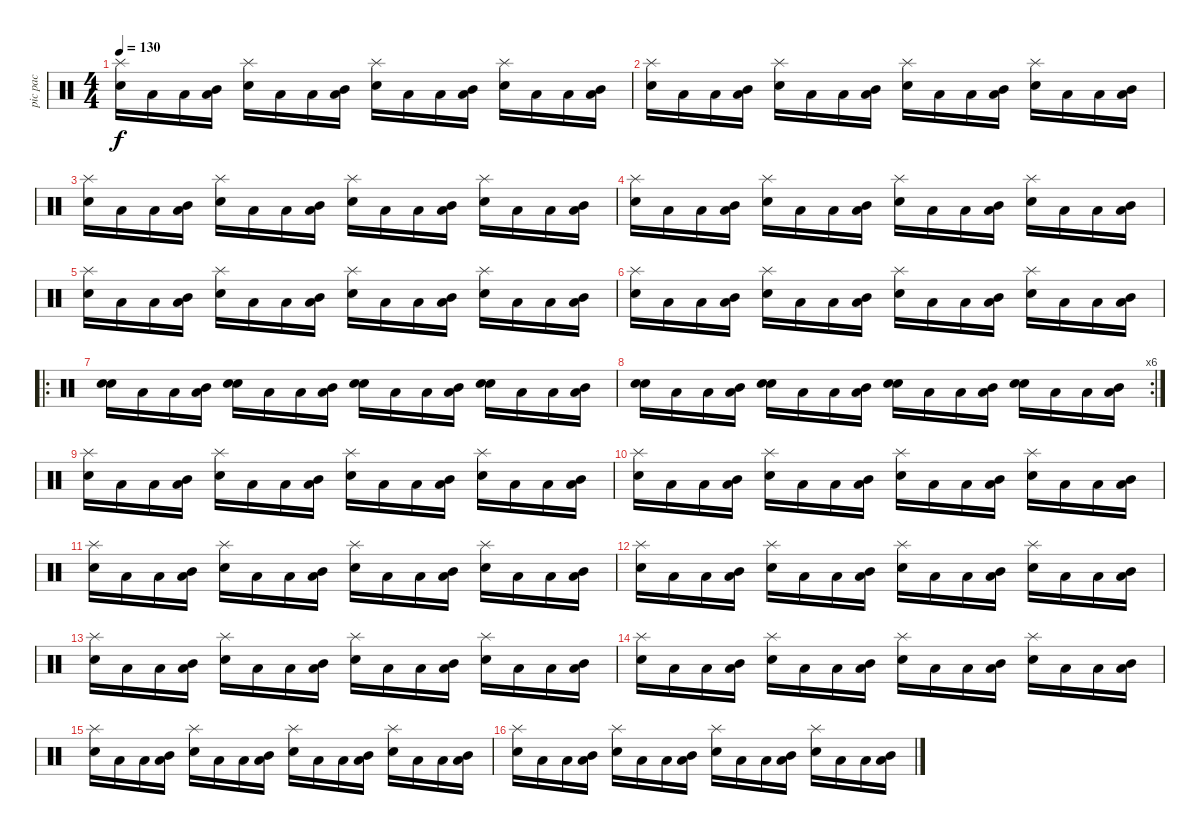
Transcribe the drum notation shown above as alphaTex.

\track ("pic pac" "pic pac") {instrument percussion}
\staff {score}
\articulation defaults
\ts (4 4)
\tempo 130
\clef neutral
\ks c
("Snare (hit) 2" "Splash (hit)").16{dy f} "Low Floor Tom (hit)".16 "Low Floor Tom (hit)".16 ("Low Floor Tom (hit)" "Mid Tom (hit)").16 ("Snare (hit) 2" "Splash (hit)").16 "Low Floor Tom (hit)".16 "Low Floor Tom (hit)".16 ("Low Floor Tom (hit)" "Mid Tom (hit)").16 ("Snare (hit) 2" "Splash (hit)").16 "Low Floor Tom (hit)".16 "Low Floor Tom (hit)".16 ("Low Floor Tom (hit)" "Mid Tom (hit)").16 ("Snare (hit) 2" "Splash (hit)").16 "Low Floor Tom (hit)".16 "Low Floor Tom (hit)".16 ("Low Floor Tom (hit)" "Mid Tom (hit)").16 |
("Snare (hit) 2" "Splash (hit)").16 "Low Floor Tom (hit)".16 "Low Floor Tom (hit)".16 ("Low Floor Tom (hit)" "Mid Tom (hit)").16 ("Snare (hit) 2" "Splash (hit)").16 "Low Floor Tom (hit)".16 "Low Floor Tom (hit)".16 ("Low Floor Tom (hit)" "Mid Tom (hit)").16 ("Snare (hit) 2" "Splash (hit)").16 "Low Floor Tom (hit)".16 "Low Floor Tom (hit)".16 ("Low Floor Tom (hit)" "Mid Tom (hit)").16 ("Snare (hit) 2" "Splash (hit)").16 "Low Floor Tom (hit)".16 "Low Floor Tom (hit)".16 ("Low Floor Tom (hit)" "Mid Tom (hit)").16 |
("Snare (hit) 2" "Splash (hit)").16 "Low Floor Tom (hit)".16 "Low Floor Tom (hit)".16 ("Low Floor Tom (hit)" "Mid Tom (hit)").16 ("Snare (hit) 2" "Splash (hit)").16 "Low Floor Tom (hit)".16 "Low Floor Tom (hit)".16 ("Low Floor Tom (hit)" "Mid Tom (hit)").16 ("Snare (hit) 2" "Splash (hit)").16 "Low Floor Tom (hit)".16 "Low Floor Tom (hit)".16 ("Low Floor Tom (hit)" "Mid Tom (hit)").16 ("Snare (hit) 2" "Splash (hit)").16 "Low Floor Tom (hit)".16 "Low Floor Tom (hit)".16 ("Low Floor Tom (hit)" "Mid Tom (hit)").16 |
("Snare (hit) 2" "Splash (hit)").16 "Low Floor Tom (hit)".16 "Low Floor Tom (hit)".16 ("Low Floor Tom (hit)" "Mid Tom (hit)").16 ("Snare (hit) 2" "Splash (hit)").16 "Low Floor Tom (hit)".16 "Low Floor Tom (hit)".16 ("Low Floor Tom (hit)" "Mid Tom (hit)").16 ("Snare (hit) 2" "Splash (hit)").16 "Low Floor Tom (hit)".16 "Low Floor Tom (hit)".16 ("Low Floor Tom (hit)" "Mid Tom (hit)").16 ("Snare (hit) 2" "Splash (hit)").16 "Low Floor Tom (hit)".16 "Low Floor Tom (hit)".16 ("Low Floor Tom (hit)" "Mid Tom (hit)").16 |
("Snare (hit) 2" "Splash (hit)").16 "Low Floor Tom (hit)".16 "Low Floor Tom (hit)".16 ("Low Floor Tom (hit)" "Mid Tom (hit)").16 ("Snare (hit) 2" "Splash (hit)").16 "Low Floor Tom (hit)".16 "Low Floor Tom (hit)".16 ("Low Floor Tom (hit)" "Mid Tom (hit)").16 ("Snare (hit) 2" "Splash (hit)").16 "Low Floor Tom (hit)".16 "Low Floor Tom (hit)".16 ("Low Floor Tom (hit)" "Mid Tom (hit)").16 ("Snare (hit) 2" "Splash (hit)").16 "Low Floor Tom (hit)".16 "Low Floor Tom (hit)".16 ("Low Floor Tom (hit)" "Mid Tom (hit)").16 |
("Snare (hit) 2" "Splash (hit)").16 "Low Floor Tom (hit)".16 "Low Floor Tom (hit)".16 ("Low Floor Tom (hit)" "Mid Tom (hit)").16 ("Snare (hit) 2" "Splash (hit)").16 "Low Floor Tom (hit)".16 "Low Floor Tom (hit)".16 ("Low Floor Tom (hit)" "Mid Tom (hit)").16 ("Snare (hit) 2" "Splash (hit)").16 "Low Floor Tom (hit)".16 "Low Floor Tom (hit)".16 ("Low Floor Tom (hit)" "Mid Tom (hit)").16 ("Snare (hit) 2" "Splash (hit)").16 "Low Floor Tom (hit)".16 "Low Floor Tom (hit)".16 ("Low Floor Tom (hit)" "Mid Tom (hit)").16 |
\ro
("Snare (hit) 2" "Electric Snare (hit)").16 "Low Floor Tom (hit)".16 "Low Floor Tom (hit)".16 ("Low Floor Tom (hit)" "Mid Tom (hit)").16 ("Snare (hit) 2" "Electric Snare (hit)").16 "Low Floor Tom (hit)".16 "Low Floor Tom (hit)".16 ("Low Floor Tom (hit)" "Mid Tom (hit)").16 ("Snare (hit) 2" "Electric Snare (hit)").16 "Low Floor Tom (hit)".16 "Low Floor Tom (hit)".16 ("Low Floor Tom (hit)" "Mid Tom (hit)").16 ("Snare (hit) 2" "Electric Snare (hit)").16 "Low Floor Tom (hit)".16 "Low Floor Tom (hit)".16 ("Low Floor Tom (hit)" "Mid Tom (hit)").16 |
\rc 6
("Snare (hit) 2" "Electric Snare (hit)").16 "Low Floor Tom (hit)".16 "Low Floor Tom (hit)".16 ("Low Floor Tom (hit)" "Mid Tom (hit)").16 ("Snare (hit) 2" "Electric Snare (hit)").16 "Low Floor Tom (hit)".16 "Low Floor Tom (hit)".16 ("Low Floor Tom (hit)" "Mid Tom (hit)").16 ("Snare (hit) 2" "Electric Snare (hit)").16 "Low Floor Tom (hit)".16 "Low Floor Tom (hit)".16 ("Low Floor Tom (hit)" "Mid Tom (hit)").16 ("Snare (hit) 2" "Electric Snare (hit)").16 "Low Floor Tom (hit)".16 "Low Floor Tom (hit)".16 ("Low Floor Tom (hit)" "Mid Tom (hit)").16 |
("Snare (hit) 2" "Splash (hit)").16 "Low Floor Tom (hit)".16 "Low Floor Tom (hit)".16 ("Low Floor Tom (hit)" "Mid Tom (hit)").16 ("Snare (hit) 2" "Splash (hit)").16 "Low Floor Tom (hit)".16 "Low Floor Tom (hit)".16 ("Low Floor Tom (hit)" "Mid Tom (hit)").16 ("Snare (hit) 2" "Splash (hit)").16 "Low Floor Tom (hit)".16 "Low Floor Tom (hit)".16 ("Low Floor Tom (hit)" "Mid Tom (hit)").16 ("Snare (hit) 2" "Splash (hit)").16 "Low Floor Tom (hit)".16 "Low Floor Tom (hit)".16 ("Low Floor Tom (hit)" "Mid Tom (hit)").16 |
("Snare (hit) 2" "Splash (hit)").16 "Low Floor Tom (hit)".16 "Low Floor Tom (hit)".16 ("Low Floor Tom (hit)" "Mid Tom (hit)").16 ("Snare (hit) 2" "Splash (hit)").16 "Low Floor Tom (hit)".16 "Low Floor Tom (hit)".16 ("Low Floor Tom (hit)" "Mid Tom (hit)").16 ("Snare (hit) 2" "Splash (hit)").16 "Low Floor Tom (hit)".16 "Low Floor Tom (hit)".16 ("Low Floor Tom (hit)" "Mid Tom (hit)").16 ("Snare (hit) 2" "Splash (hit)").16 "Low Floor Tom (hit)".16 "Low Floor Tom (hit)".16 ("Low Floor Tom (hit)" "Mid Tom (hit)").16 |
("Snare (hit) 2" "Splash (hit)").16 "Low Floor Tom (hit)".16 "Low Floor Tom (hit)".16 ("Low Floor Tom (hit)" "Mid Tom (hit)").16 ("Snare (hit) 2" "Splash (hit)").16 "Low Floor Tom (hit)".16 "Low Floor Tom (hit)".16 ("Low Floor Tom (hit)" "Mid Tom (hit)").16 ("Snare (hit) 2" "Splash (hit)").16 "Low Floor Tom (hit)".16 "Low Floor Tom (hit)".16 ("Low Floor Tom (hit)" "Mid Tom (hit)").16 ("Snare (hit) 2" "Splash (hit)").16 "Low Floor Tom (hit)".16 "Low Floor Tom (hit)".16 ("Low Floor Tom (hit)" "Mid Tom (hit)").16 |
("Snare (hit) 2" "Splash (hit)").16 "Low Floor Tom (hit)".16 "Low Floor Tom (hit)".16 ("Low Floor Tom (hit)" "Mid Tom (hit)").16 ("Snare (hit) 2" "Splash (hit)").16 "Low Floor Tom (hit)".16 "Low Floor Tom (hit)".16 ("Low Floor Tom (hit)" "Mid Tom (hit)").16 ("Snare (hit) 2" "Splash (hit)").16 "Low Floor Tom (hit)".16 "Low Floor Tom (hit)".16 ("Low Floor Tom (hit)" "Mid Tom (hit)").16 ("Snare (hit) 2" "Splash (hit)").16 "Low Floor Tom (hit)".16 "Low Floor Tom (hit)".16 ("Low Floor Tom (hit)" "Mid Tom (hit)").16 |
("Snare (hit) 2" "Splash (hit)").16 "Low Floor Tom (hit)".16 "Low Floor Tom (hit)".16 ("Low Floor Tom (hit)" "Mid Tom (hit)").16 ("Snare (hit) 2" "Splash (hit)").16 "Low Floor Tom (hit)".16 "Low Floor Tom (hit)".16 ("Low Floor Tom (hit)" "Mid Tom (hit)").16 ("Snare (hit) 2" "Splash (hit)").16 "Low Floor Tom (hit)".16 "Low Floor Tom (hit)".16 ("Low Floor Tom (hit)" "Mid Tom (hit)").16 ("Snare (hit) 2" "Splash (hit)").16 "Low Floor Tom (hit)".16 "Low Floor Tom (hit)".16 ("Low Floor Tom (hit)" "Mid Tom (hit)").16 |
("Snare (hit) 2" "Splash (hit)").16 "Low Floor Tom (hit)".16 "Low Floor Tom (hit)".16 ("Low Floor Tom (hit)" "Mid Tom (hit)").16 ("Snare (hit) 2" "Splash (hit)").16 "Low Floor Tom (hit)".16 "Low Floor Tom (hit)".16 ("Low Floor Tom (hit)" "Mid Tom (hit)").16 ("Snare (hit) 2" "Splash (hit)").16 "Low Floor Tom (hit)".16 "Low Floor Tom (hit)".16 ("Low Floor Tom (hit)" "Mid Tom (hit)").16 ("Snare (hit) 2" "Splash (hit)").16 "Low Floor Tom (hit)".16 "Low Floor Tom (hit)".16 ("Low Floor Tom (hit)" "Mid Tom (hit)").16 |
("Snare (hit) 2" "Splash (hit)").16 "Low Floor Tom (hit)".16 "Low Floor Tom (hit)".16 ("Low Floor Tom (hit)" "Mid Tom (hit)").16 ("Snare (hit) 2" "Splash (hit)").16 "Low Floor Tom (hit)".16 "Low Floor Tom (hit)".16 ("Low Floor Tom (hit)" "Mid Tom (hit)").16 ("Snare (hit) 2" "Splash (hit)").16 "Low Floor Tom (hit)".16 "Low Floor Tom (hit)".16 ("Low Floor Tom (hit)" "Mid Tom (hit)").16 ("Snare (hit) 2" "Splash (hit)").16 "Low Floor Tom (hit)".16 "Low Floor Tom (hit)".16 ("Low Floor Tom (hit)" "Mid Tom (hit)").16 |
("Snare (hit) 2" "Splash (hit)").16 "Low Floor Tom (hit)".16 "Low Floor Tom (hit)".16 ("Low Floor Tom (hit)" "Mid Tom (hit)").16 ("Snare (hit) 2" "Splash (hit)").16 "Low Floor Tom (hit)".16 "Low Floor Tom (hit)".16 ("Low Floor Tom (hit)" "Mid Tom (hit)").16 ("Snare (hit) 2" "Splash (hit)").16 "Low Floor Tom (hit)".16 "Low Floor Tom (hit)".16 ("Low Floor Tom (hit)" "Mid Tom (hit)").16 ("Snare (hit) 2" "Splash (hit)").16 "Low Floor Tom (hit)".16 "Low Floor Tom (hit)".16 ("Low Floor Tom (hit)" "Mid Tom (hit)").16
